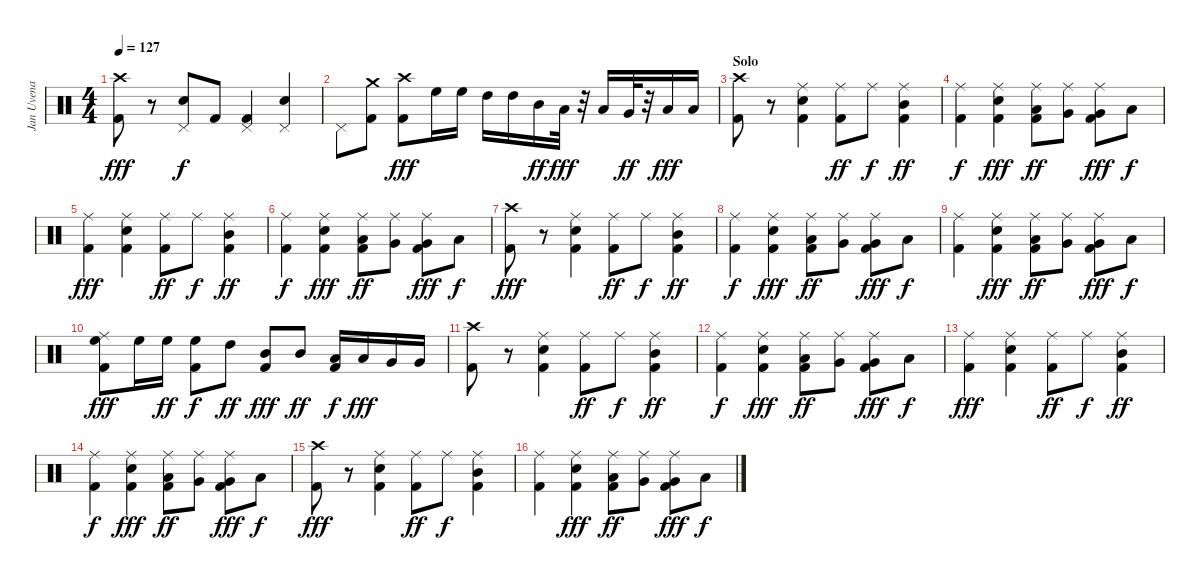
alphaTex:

\track ("Jan Uvena" "Jan Uvena") {instrument percussion}
\staff {score}
\articulation defaults
\ts (4 4)
\tempo 127
\clef neutral
\ks c
("Crash high (hit)" "Kick (hit) 2").8{dy fff} r.8 ("Pedal Hi-Hat (hit)" "Snare (hit) 2").8{dy f} "Kick (hit) 2".8 ("Pedal Hi-Hat (hit)" "Kick (hit) 2").4 ("Pedal Hi-Hat (hit)" "Snare (hit) 2").4 |
"Pedal Hi-Hat (hit)".8 ("Crash medium (hit)" "Kick (hit) 2").8 ("Crash high (hit)" "Kick (hit) 2").8{dy fff} "High Floor Tom (hit)".16 "High Floor Tom (hit)".16 "High Tom (hit)".16 "High Tom (hit)".16 "Mid Tom (hit)".16{dy ff} "Low Tom (hit)".32{dy fff} r.32 "Low Tom (hit)".16 "Very Low Tom (hit)".32{dy ff} r.32 "Low Floor Tom (hit)".16{dy fff} "Low Floor Tom (hit)".16 |
\section ("" "Solo")
("Crash high (hit)" "Kick (hit) 2").8 r.8 ("Ride (middle)" "Snare (hit) 2" "Kick (hit) 2").4 ("Ride (middle)" "Kick (hit) 2").8{dy ff} "Ride (middle)".8{dy f} ("Mid Tom (hit)" "Ride (middle)" "Kick (hit) 2").4{dy ff} |
("Ride (middle)" "Kick (hit) 2").4{dy f} ("Ride (middle)" "Snare (hit) 2" "Kick (hit) 2").4{dy fff} ("Ride (middle)" "Low Tom (hit)" "Kick (hit) 2").8{dy ff} ("Ride (middle)" "Very Low Tom (hit)").8 ("Ride (middle)" "Very Low Tom (hit)" "Kick (hit) 2").8{dy fff} "Low Floor Tom (hit)".8{dy f} |
("Ride (middle)" "Kick (hit) 2").4{dy fff} ("Ride (middle)" "Snare (hit) 2" "Kick (hit) 2").4 ("Ride (middle)" "Kick (hit) 2").8{dy ff} "Ride (middle)".8{dy f} ("Mid Tom (hit)" "Ride (middle)" "Kick (hit) 2").4{dy ff} |
("Ride (middle)" "Kick (hit) 2").4{dy f} ("Ride (middle)" "Snare (hit) 2" "Kick (hit) 2").4{dy fff} ("Ride (middle)" "Low Tom (hit)" "Kick (hit) 2").8{dy ff} ("Ride (middle)" "Very Low Tom (hit)").8 ("Ride (middle)" "Very Low Tom (hit)" "Kick (hit) 2").8{dy fff} "Low Floor Tom (hit)".8{dy f} |
("Crash high (hit)" "Kick (hit) 2").8{dy fff} r.8 ("Ride (middle)" "Snare (hit) 2" "Kick (hit) 2").4 ("Ride (middle)" "Kick (hit) 2").8{dy ff} "Ride (middle)".8{dy f} ("Mid Tom (hit)" "Ride (middle)" "Kick (hit) 2").4{dy ff} |
("Ride (middle)" "Kick (hit) 2").4{dy f} ("Ride (middle)" "Snare (hit) 2" "Kick (hit) 2").4{dy fff} ("Ride (middle)" "Low Tom (hit)" "Kick (hit) 2").8{dy ff} ("Ride (middle)" "Very Low Tom (hit)").8 ("Ride (middle)" "Very Low Tom (hit)" "Kick (hit) 2").8{dy fff} "Low Floor Tom (hit)".8{dy f} |
("Ride (middle)" "Kick (hit) 2").4 ("Ride (middle)" "Snare (hit) 2" "Kick (hit) 2").4{dy fff} ("Ride (middle)" "Low Tom (hit)" "Kick (hit) 2").8{dy ff} ("Ride (middle)" "Very Low Tom (hit)").8 ("Ride (middle)" "Very Low Tom (hit)" "Kick (hit) 2").8{dy fff} "Low Floor Tom (hit)".8{dy f} |
("High Floor Tom (hit)" "Ride (middle)" "Kick (hit) 2").8{dy fff} "High Floor Tom (hit)".16 "High Floor Tom (hit)".16{dy ff} ("High Floor Tom (hit)" "Kick (hit) 2").8{dy f} "High Tom (hit)".8{dy ff} ("Mid Tom (hit)" "Kick (hit) 2").8{dy fff} "Mid Tom (hit)".8{dy ff} ("Low Tom (hit)" "Kick (hit) 2").16{dy f} "Low Tom (hit)".16{dy fff} "Very Low Tom (hit)".16 "Very Low Tom (hit)".16 |
("Crash high (hit)" "Kick (hit) 2").8 r.8 ("Ride (middle)" "Snare (hit) 2" "Kick (hit) 2").4 ("Ride (middle)" "Kick (hit) 2").8{dy ff} "Ride (middle)".8{dy f} ("Mid Tom (hit)" "Ride (middle)" "Kick (hit) 2").4{dy ff} |
("Ride (middle)" "Kick (hit) 2").4{dy f} ("Ride (middle)" "Snare (hit) 2" "Kick (hit) 2").4{dy fff} ("Ride (middle)" "Low Tom (hit)" "Kick (hit) 2").8{dy ff} ("Ride (middle)" "Very Low Tom (hit)").8 ("Ride (middle)" "Very Low Tom (hit)" "Kick (hit) 2").8{dy fff} "Low Floor Tom (hit)".8{dy f} |
("Ride (middle)" "Kick (hit) 2").4{dy fff} ("Ride (middle)" "Snare (hit) 2" "Kick (hit) 2").4 ("Ride (middle)" "Kick (hit) 2").8{dy ff} "Ride (middle)".8{dy f} ("Mid Tom (hit)" "Ride (middle)" "Kick (hit) 2").4{dy ff} |
("Ride (middle)" "Kick (hit) 2").4{dy f} ("Ride (middle)" "Snare (hit) 2" "Kick (hit) 2").4{dy fff} ("Ride (middle)" "Low Tom (hit)" "Kick (hit) 2").8{dy ff} ("Ride (middle)" "Very Low Tom (hit)").8 ("Ride (middle)" "Very Low Tom (hit)" "Kick (hit) 2").8{dy fff} "Low Floor Tom (hit)".8{dy f} |
("Crash high (hit)" "Kick (hit) 2").8{dy fff} r.8 ("Ride (middle)" "Snare (hit) 2" "Kick (hit) 2").4 ("Ride (middle)" "Kick (hit) 2").8{dy ff} "Ride (middle)".8{dy f} ("Mid Tom (hit)" "Ride (middle)" "Kick (hit) 2").4 |
("Ride (middle)" "Kick (hit) 2").4 ("Ride (middle)" "Snare (hit) 2" "Kick (hit) 2").4{dy fff} ("Ride (middle)" "Low Tom (hit)" "Kick (hit) 2").8{dy ff} ("Ride (middle)" "Very Low Tom (hit)").8 ("Ride (middle)" "Very Low Tom (hit)" "Kick (hit) 2").8{dy fff} "Low Floor Tom (hit)".8{dy f}
